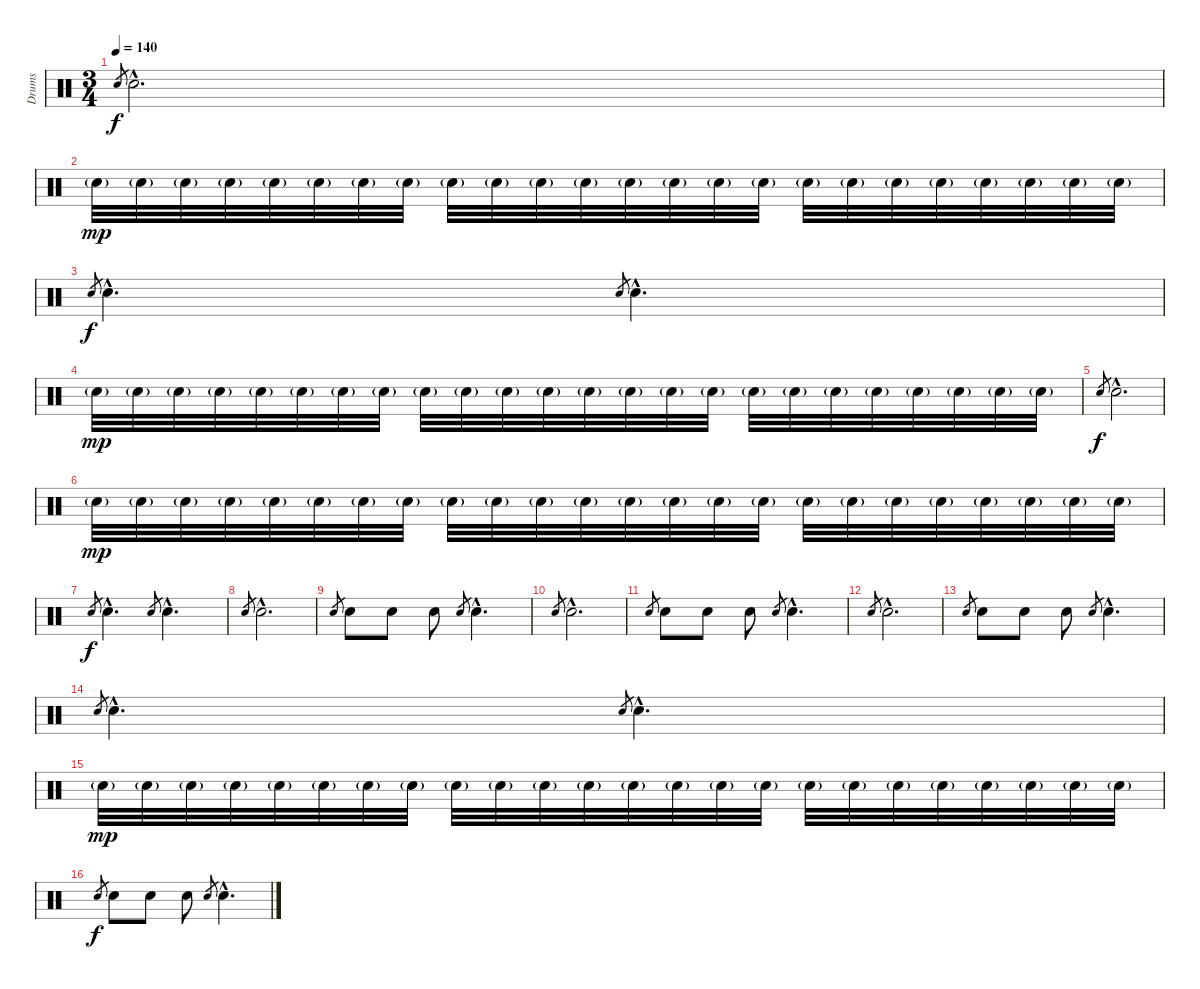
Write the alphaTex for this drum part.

\track ("Drums" "Drums") {instrument percussion}
\staff {score}
\articulation defaults
\ts (3 4)
\tempo 140
\clef neutral
\ks c "Snare (hit) 2".8{gr dy f} "Snare (hit) 2"{hac}.2{d}
|
"Snare (hit) 2"{g}.32{dy mp} "Snare (hit) 2"{g}.32 "Snare (hit) 2"{g}.32 "Snare (hit) 2"{g}.32 "Snare (hit) 2"{g}.32 "Snare (hit) 2"{g}.32 "Snare (hit) 2"{g}.32 "Snare (hit) 2"{g}.32 "Snare (hit) 2"{g}.32 "Snare (hit) 2"{g}.32 "Snare (hit) 2"{g}.32 "Snare (hit) 2"{g}.32 "Snare (hit) 2"{g}.32 "Snare (hit) 2"{g}.32 "Snare (hit) 2"{g}.32 "Snare (hit) 2"{g}.32 "Snare (hit) 2"{g}.32 "Snare (hit) 2"{g}.32 "Snare (hit) 2"{g}.32 "Snare (hit) 2"{g}.32 "Snare (hit) 2"{g}.32 "Snare (hit) 2"{g}.32 "Snare (hit) 2"{g}.32 "Snare (hit) 2"{g}.32 |
"Snare (hit) 2".8{gr dy f} "Snare (hit) 2"{hac}.4{d} "Snare (hit) 2".8{gr} "Snare (hit) 2"{hac}.4{d} |
"Snare (hit) 2"{g}.32{dy mp} "Snare (hit) 2"{g}.32 "Snare (hit) 2"{g}.32 "Snare (hit) 2"{g}.32 "Snare (hit) 2"{g}.32 "Snare (hit) 2"{g}.32 "Snare (hit) 2"{g}.32 "Snare (hit) 2"{g}.32 "Snare (hit) 2"{g}.32 "Snare (hit) 2"{g}.32 "Snare (hit) 2"{g}.32 "Snare (hit) 2"{g}.32 "Snare (hit) 2"{g}.32 "Snare (hit) 2"{g}.32 "Snare (hit) 2"{g}.32 "Snare (hit) 2"{g}.32 "Snare (hit) 2"{g}.32 "Snare (hit) 2"{g}.32 "Snare (hit) 2"{g}.32 "Snare (hit) 2"{g}.32 "Snare (hit) 2"{g}.32 "Snare (hit) 2"{g}.32 "Snare (hit) 2"{g}.32 "Snare (hit) 2"{g}.32 |
"Snare (hit) 2".8{gr dy f} "Snare (hit) 2"{hac}.2{d} |
"Snare (hit) 2"{g}.32{dy mp} "Snare (hit) 2"{g}.32 "Snare (hit) 2"{g}.32 "Snare (hit) 2"{g}.32 "Snare (hit) 2"{g}.32 "Snare (hit) 2"{g}.32 "Snare (hit) 2"{g}.32 "Snare (hit) 2"{g}.32 "Snare (hit) 2"{g}.32 "Snare (hit) 2"{g}.32 "Snare (hit) 2"{g}.32 "Snare (hit) 2"{g}.32 "Snare (hit) 2"{g}.32 "Snare (hit) 2"{g}.32 "Snare (hit) 2"{g}.32 "Snare (hit) 2"{g}.32 "Snare (hit) 2"{g}.32 "Snare (hit) 2"{g}.32 "Snare (hit) 2"{g}.32 "Snare (hit) 2"{g}.32 "Snare (hit) 2"{g}.32 "Snare (hit) 2"{g}.32 "Snare (hit) 2"{g}.32 "Snare (hit) 2"{g}.32 |
"Snare (hit) 2".8{gr dy f} "Snare (hit) 2"{hac}.4{d} "Snare (hit) 2".8{gr} "Snare (hit) 2"{hac}.4{d} |
"Snare (hit) 2".8{gr} "Snare (hit) 2"{hac}.2{d} |
"Snare (hit) 2".8{gr} "Snare (hit) 2".8 "Snare (hit) 2".8 "Snare (hit) 2".8 "Snare (hit) 2".8{gr} "Snare (hit) 2"{hac}.4{d} |
"Snare (hit) 2".8{gr} "Snare (hit) 2"{hac}.2{d} |
"Snare (hit) 2".8{gr} "Snare (hit) 2".8 "Snare (hit) 2".8 "Snare (hit) 2".8 "Snare (hit) 2".8{gr} "Snare (hit) 2"{hac}.4{d} |
"Snare (hit) 2".8{gr} "Snare (hit) 2"{hac}.2{d} |
"Snare (hit) 2".8{gr} "Snare (hit) 2".8 "Snare (hit) 2".8 "Snare (hit) 2".8 "Snare (hit) 2".8{gr} "Snare (hit) 2"{hac}.4{d} |
"Snare (hit) 2".8{gr} "Snare (hit) 2"{hac}.4{d} "Snare (hit) 2".8{gr} "Snare (hit) 2"{hac}.4{d} |
"Snare (hit) 2"{g}.32{dy mp} "Snare (hit) 2"{g}.32 "Snare (hit) 2"{g}.32 "Snare (hit) 2"{g}.32 "Snare (hit) 2"{g}.32 "Snare (hit) 2"{g}.32 "Snare (hit) 2"{g}.32 "Snare (hit) 2"{g}.32 "Snare (hit) 2"{g}.32 "Snare (hit) 2"{g}.32 "Snare (hit) 2"{g}.32 "Snare (hit) 2"{g}.32 "Snare (hit) 2"{g}.32 "Snare (hit) 2"{g}.32 "Snare (hit) 2"{g}.32 "Snare (hit) 2"{g}.32 "Snare (hit) 2"{g}.32 "Snare (hit) 2"{g}.32 "Snare (hit) 2"{g}.32 "Snare (hit) 2"{g}.32 "Snare (hit) 2"{g}.32 "Snare (hit) 2"{g}.32 "Snare (hit) 2"{g}.32 "Snare (hit) 2"{g}.32 |
"Snare (hit) 2".8{gr dy f} "Snare (hit) 2".8 "Snare (hit) 2".8 "Snare (hit) 2".8 "Snare (hit) 2".8{gr} "Snare (hit) 2"{hac}.4{d}
